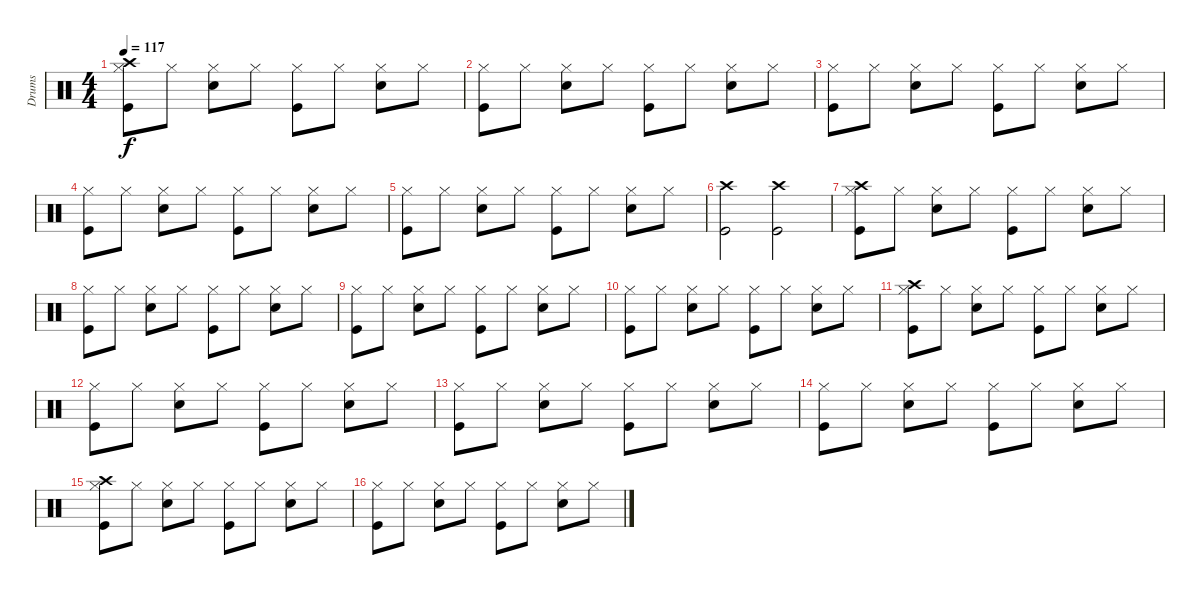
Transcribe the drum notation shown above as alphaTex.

\track ("Drums" "Drums") {instrument percussion}
\staff {score}
\articulation defaults
\ts (4 4)
\tempo 117
\clef neutral
\ks c
("Kick (hit)" "Hi-Hat (closed)" "Crash high (hit)").8{dy f} "Hi-Hat (closed)".8 ("Hi-Hat (closed)" "Snare (hit) 2").8 "Hi-Hat (closed)".8 ("Kick (hit)" "Hi-Hat (closed)").8 "Hi-Hat (closed)".8 ("Hi-Hat (closed)" "Snare (hit) 2").8 "Hi-Hat (closed)".8 |
("Kick (hit)" "Hi-Hat (closed)").8 "Hi-Hat (closed)".8 ("Hi-Hat (closed)" "Snare (hit) 2").8 "Hi-Hat (closed)".8 ("Kick (hit)" "Hi-Hat (closed)").8 "Hi-Hat (closed)".8 ("Hi-Hat (closed)" "Snare (hit) 2").8 "Hi-Hat (closed)".8 |
("Kick (hit)" "Hi-Hat (closed)").8 "Hi-Hat (closed)".8 ("Hi-Hat (closed)" "Snare (hit) 2").8 "Hi-Hat (closed)".8 ("Kick (hit)" "Hi-Hat (closed)").8 "Hi-Hat (closed)".8 ("Hi-Hat (closed)" "Snare (hit) 2").8 "Hi-Hat (closed)".8 |
("Kick (hit)" "Hi-Hat (closed)").8 "Hi-Hat (closed)".8 ("Hi-Hat (closed)" "Snare (hit) 2").8 "Hi-Hat (closed)".8 ("Kick (hit)" "Hi-Hat (closed)").8 "Hi-Hat (closed)".8 ("Hi-Hat (closed)" "Snare (hit) 2").8 "Hi-Hat (closed)".8 |
("Kick (hit)" "Hi-Hat (closed)").8 "Hi-Hat (closed)".8 ("Hi-Hat (closed)" "Snare (hit) 2").8 "Hi-Hat (closed)".8 ("Kick (hit)" "Hi-Hat (closed)").8 "Hi-Hat (closed)".8 ("Hi-Hat (closed)" "Snare (hit) 2").8 "Hi-Hat (closed)".8 |
("Kick (hit)" "Crash high (hit)").2 ("Kick (hit)" "Crash high (hit)").2 |
("Kick (hit)" "Hi-Hat (closed)" "Crash high (hit)").8 "Hi-Hat (closed)".8 ("Hi-Hat (closed)" "Snare (hit) 2").8 "Hi-Hat (closed)".8 ("Kick (hit)" "Hi-Hat (closed)").8 "Hi-Hat (closed)".8 ("Hi-Hat (closed)" "Snare (hit) 2").8 "Hi-Hat (closed)".8 |
("Kick (hit)" "Hi-Hat (closed)").8 "Hi-Hat (closed)".8 ("Hi-Hat (closed)" "Snare (hit) 2").8 "Hi-Hat (closed)".8 ("Kick (hit)" "Hi-Hat (closed)").8 "Hi-Hat (closed)".8 ("Hi-Hat (closed)" "Snare (hit) 2").8 "Hi-Hat (closed)".8 |
("Kick (hit)" "Hi-Hat (closed)").8 "Hi-Hat (closed)".8 ("Hi-Hat (closed)" "Snare (hit) 2").8 "Hi-Hat (closed)".8 ("Kick (hit)" "Hi-Hat (closed)").8 "Hi-Hat (closed)".8 ("Hi-Hat (closed)" "Snare (hit) 2").8 "Hi-Hat (closed)".8 |
("Kick (hit)" "Hi-Hat (closed)").8 "Hi-Hat (closed)".8 ("Hi-Hat (closed)" "Snare (hit) 2").8 "Hi-Hat (closed)".8 ("Kick (hit)" "Hi-Hat (closed)").8 "Hi-Hat (closed)".8 ("Hi-Hat (closed)" "Snare (hit) 2").8 "Hi-Hat (closed)".8 |
("Kick (hit)" "Hi-Hat (closed)" "Crash high (hit)").8 "Hi-Hat (closed)".8 ("Hi-Hat (closed)" "Snare (hit) 2").8 "Hi-Hat (closed)".8 ("Kick (hit)" "Hi-Hat (closed)").8 "Hi-Hat (closed)".8 ("Hi-Hat (closed)" "Snare (hit) 2").8 "Hi-Hat (closed)".8 |
("Kick (hit)" "Hi-Hat (closed)").8 "Hi-Hat (closed)".8 ("Hi-Hat (closed)" "Snare (hit) 2").8 "Hi-Hat (closed)".8 ("Kick (hit)" "Hi-Hat (closed)").8 "Hi-Hat (closed)".8 ("Hi-Hat (closed)" "Snare (hit) 2").8 "Hi-Hat (closed)".8 |
("Kick (hit)" "Hi-Hat (closed)").8 "Hi-Hat (closed)".8 ("Hi-Hat (closed)" "Snare (hit) 2").8 "Hi-Hat (closed)".8 ("Kick (hit)" "Hi-Hat (closed)").8 "Hi-Hat (closed)".8 ("Hi-Hat (closed)" "Snare (hit) 2").8 "Hi-Hat (closed)".8 |
("Kick (hit)" "Hi-Hat (closed)").8 "Hi-Hat (closed)".8 ("Hi-Hat (closed)" "Snare (hit) 2").8 "Hi-Hat (closed)".8 ("Kick (hit)" "Hi-Hat (closed)").8 "Hi-Hat (closed)".8 ("Hi-Hat (closed)" "Snare (hit) 2").8 "Hi-Hat (closed)".8 |
("Kick (hit)" "Hi-Hat (closed)" "Crash high (hit)").8 "Hi-Hat (closed)".8 ("Hi-Hat (closed)" "Snare (hit) 2").8 "Hi-Hat (closed)".8 ("Kick (hit)" "Hi-Hat (closed)").8 "Hi-Hat (closed)".8 ("Hi-Hat (closed)" "Snare (hit) 2").8 "Hi-Hat (closed)".8 |
("Kick (hit)" "Hi-Hat (closed)").8 "Hi-Hat (closed)".8 ("Hi-Hat (closed)" "Snare (hit) 2").8 "Hi-Hat (closed)".8 ("Kick (hit)" "Hi-Hat (closed)").8 "Hi-Hat (closed)".8 ("Hi-Hat (closed)" "Snare (hit) 2").8 "Hi-Hat (closed)".8
